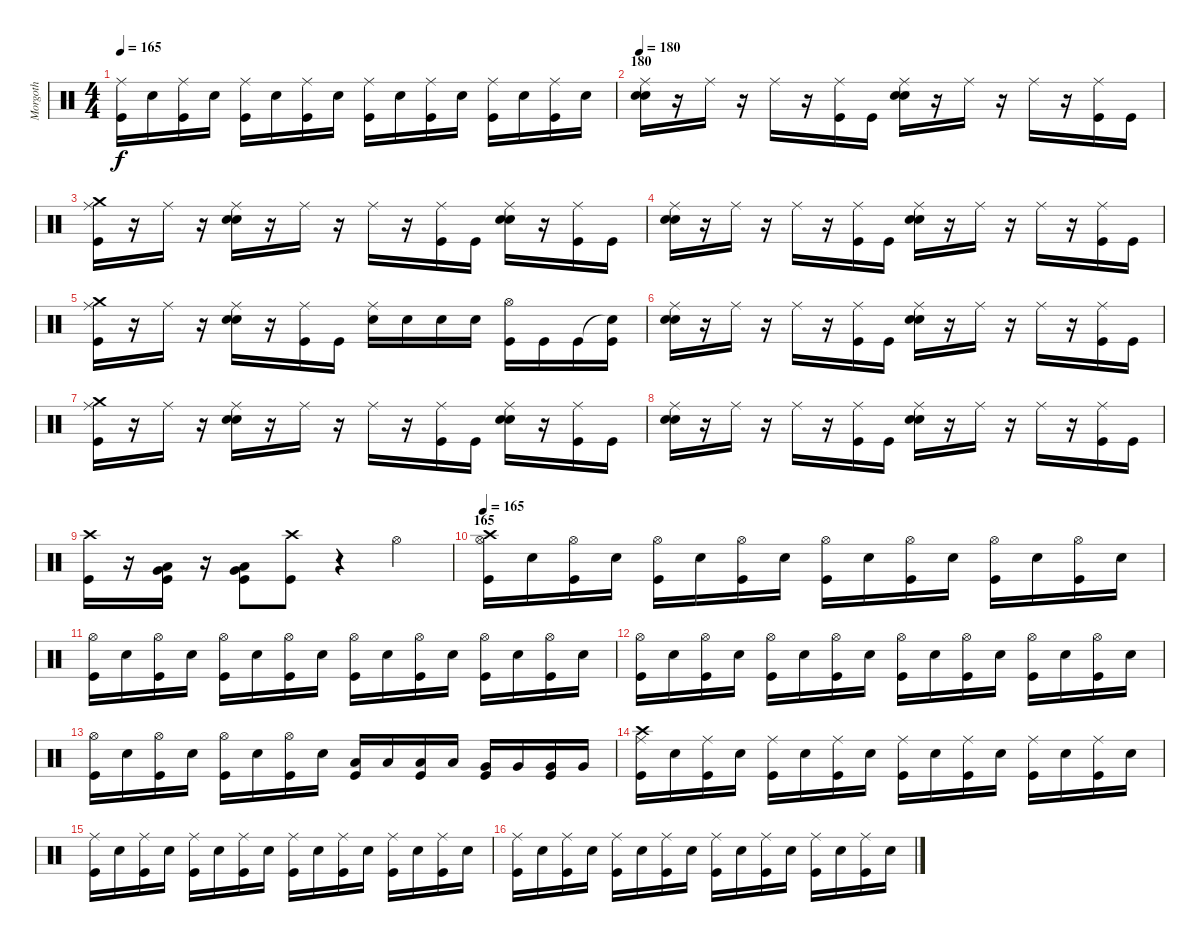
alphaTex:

\track ("Morgoth" "Morgoth") {instrument percussion}
\staff {score}
\articulation defaults
\ts (4 4)
\tempo 165
\clef neutral
\ks c
("Kick (hit)" "Ride (middle)").16{dy f} "Snare (hit) 2".16 ("Kick (hit)" "Ride (middle)").16 "Snare (hit) 2".16 ("Kick (hit)" "Ride (middle)").16 "Snare (hit) 2".16 ("Kick (hit)" "Ride (middle)").16 "Snare (hit) 2".16 ("Kick (hit)" "Ride (middle)").16 "Snare (hit) 2".16 ("Kick (hit)" "Ride (middle)").16 "Snare (hit) 2".16 ("Kick (hit)" "Ride (middle)").16 "Snare (hit) 2".16 ("Kick (hit)" "Ride (middle)").16 "Snare (hit) 2".16 |
\section ("" "180")
\tempo 180
("Ride (middle)" "Snare (hit) 2" "Snare (hit) 2").16 r.16 "Ride (middle)".16 r.16 "Ride (middle)".16 r.16 ("Ride (middle)" "Kick (hit)").16 "Kick (hit)".16 ("Ride (middle)" "Snare (hit) 2" "Snare (hit) 2").16 r.16 "Ride (middle)".16 r.16 "Ride (middle)".16 r.16 ("Ride (middle)" "Kick (hit)").16 "Kick (hit)".16 |
("Crash medium (hit)" "Ride (middle)" "Kick (hit)").16 r.16 "Ride (middle)".16 r.16 ("Ride (middle)" "Snare (hit) 2" "Snare (hit) 2").16 r.16 "Ride (middle)".16 r.16 "Ride (middle)".16 r.16 ("Ride (middle)" "Kick (hit)").16 "Kick (hit)".16 ("Ride (middle)" "Snare (hit) 2" "Snare (hit) 2").16 r.16 ("Ride (middle)" "Kick (hit)").16 "Kick (hit)".16 |
("Ride (middle)" "Snare (hit) 2" "Snare (hit) 2").16 r.16 "Ride (middle)".16 r.16 "Ride (middle)".16 r.16 ("Ride (middle)" "Kick (hit)").16 "Kick (hit)".16 ("Ride (middle)" "Snare (hit) 2" "Snare (hit) 2").16 r.16 "Ride (middle)".16 r.16 "Ride (middle)".16 r.16 ("Ride (middle)" "Kick (hit)").16 "Kick (hit)".16 |
("Crash medium (hit)" "Ride (middle)" "Kick (hit)").16 r.16 "Ride (middle)".16 r.16 ("Ride (middle)" "Snare (hit) 2" "Snare (hit) 2").16 r.16 ("Ride (middle)" "Kick (hit)").16 "Kick (hit)".16 ("Ride (middle)" "Snare (hit) 2").16 "Snare (hit) 2".16 "Snare (hit) 2".16 "Snare (hit) 2".16 ("Hi-Hat (open)" "Kick (hit)").16 "Kick (hit)".16 "Kick (hit)".16 ("Snare (hit)"{t} "Kick (hit)").16 |
("Ride (middle)" "Snare (hit) 2" "Snare (hit) 2").16 r.16 "Ride (middle)".16 r.16 "Ride (middle)".16 r.16 ("Ride (middle)" "Kick (hit)").16 "Kick (hit)".16 ("Ride (middle)" "Snare (hit) 2" "Snare (hit) 2").16 r.16 "Ride (middle)".16 r.16 "Ride (middle)".16 r.16 ("Ride (middle)" "Kick (hit)").16 "Kick (hit)".16 |
("Crash medium (hit)" "Ride (middle)" "Kick (hit)").16 r.16 "Ride (middle)".16 r.16 ("Ride (middle)" "Snare (hit) 2" "Snare (hit) 2").16 r.16 "Ride (middle)".16 r.16 "Ride (middle)".16 r.16 ("Ride (middle)" "Kick (hit)").16 "Kick (hit)".16 ("Ride (middle)" "Snare (hit) 2" "Snare (hit) 2").16 r.16 ("Ride (middle)" "Kick (hit)").16 "Kick (hit)".16 |
("Ride (middle)" "Snare (hit) 2" "Snare (hit) 2").16 r.16 "Ride (middle)".16 r.16 "Ride (middle)".16 r.16 ("Ride (middle)" "Kick (hit)").16 "Kick (hit)".16 ("Ride (middle)" "Snare (hit) 2" "Snare (hit) 2").16 r.16 "Ride (middle)".16 r.16 "Ride (middle)".16 r.16 ("Ride (middle)" "Kick (hit)").16 "Kick (hit)".16 |
("Crash high (hit)" "Kick (hit)").16 r.16 ("Kick (hit)" "Low Tom (hit)" "Very Low Tom (hit)").16 r.16 ("Kick (hit)" "Low Tom (hit)" "Very Low Tom (hit)").8 ("Crash high (hit)" "Kick (hit)").8 r.4 "Hi-Hat (open)".4 |
\section ("" "165")
\tempo 165
("Kick (hit)" "Crash high (hit)" "Hi-Hat (open)").16 "Snare (hit) 2".16 ("Kick (hit)" "Hi-Hat (open)").16 "Snare (hit) 2".16 ("Kick (hit)" "Hi-Hat (open)").16 "Snare (hit) 2".16 ("Kick (hit)" "Hi-Hat (open)").16 "Snare (hit) 2".16 ("Kick (hit)" "Hi-Hat (open)").16 "Snare (hit) 2".16 ("Kick (hit)" "Hi-Hat (open)").16 "Snare (hit) 2".16 ("Kick (hit)" "Hi-Hat (open)").16 "Snare (hit) 2".16 ("Kick (hit)" "Hi-Hat (open)").16 "Snare (hit) 2".16 |
("Kick (hit)" "Hi-Hat (open)").16 "Snare (hit) 2".16 ("Kick (hit)" "Hi-Hat (open)").16 "Snare (hit) 2".16 ("Kick (hit)" "Hi-Hat (open)").16 "Snare (hit) 2".16 ("Kick (hit)" "Hi-Hat (open)").16 "Snare (hit) 2".16 ("Kick (hit)" "Hi-Hat (open)").16 "Snare (hit) 2".16 ("Kick (hit)" "Hi-Hat (open)").16 "Snare (hit) 2".16 ("Kick (hit)" "Hi-Hat (open)").16 "Snare (hit) 2".16 ("Kick (hit)" "Hi-Hat (open)").16 "Snare (hit) 2".16 |
("Kick (hit)" "Hi-Hat (open)").16 "Snare (hit) 2".16 ("Kick (hit)" "Hi-Hat (open)").16 "Snare (hit) 2".16 ("Kick (hit)" "Hi-Hat (open)").16 "Snare (hit) 2".16 ("Kick (hit)" "Hi-Hat (open)").16 "Snare (hit) 2".16 ("Kick (hit)" "Hi-Hat (open)").16 "Snare (hit) 2".16 ("Kick (hit)" "Hi-Hat (open)").16 "Snare (hit) 2".16 ("Kick (hit)" "Hi-Hat (open)").16 "Snare (hit) 2".16 ("Kick (hit)" "Hi-Hat (open)").16 "Snare (hit) 2".16 |
("Kick (hit)" "Hi-Hat (open)").16 "Snare (hit) 2".16 ("Kick (hit)" "Hi-Hat (open)").16 "Snare (hit) 2".16 ("Kick (hit)" "Hi-Hat (open)").16 "Snare (hit) 2".16 ("Kick (hit)" "Hi-Hat (open)").16 "Snare (hit) 2".16 ("Kick (hit)" "Low Tom (hit)").16 "Low Tom (hit)".16 ("Kick (hit)" "Low Tom (hit)").16 "Low Tom (hit)".16 ("Kick (hit)" "Very Low Tom (hit)").16 "Very Low Tom (hit)".16 ("Kick (hit)" "Very Low Tom (hit)").16 "Very Low Tom (hit)".16 |
("Kick (hit)" "Crash high (hit)" "Ride (middle)").16 "Snare (hit) 2".16 ("Kick (hit)" "Ride (middle)").16 "Snare (hit) 2".16 ("Kick (hit)" "Ride (middle)").16 "Snare (hit) 2".16 ("Kick (hit)" "Ride (middle)").16 "Snare (hit) 2".16 ("Kick (hit)" "Ride (middle)").16 "Snare (hit) 2".16 ("Kick (hit)" "Ride (middle)").16 "Snare (hit) 2".16 ("Kick (hit)" "Ride (middle)").16 "Snare (hit) 2".16 ("Kick (hit)" "Ride (middle)").16 "Snare (hit) 2".16 |
("Kick (hit)" "Ride (middle)").16 "Snare (hit) 2".16 ("Kick (hit)" "Ride (middle)").16 "Snare (hit) 2".16 ("Kick (hit)" "Ride (middle)").16 "Snare (hit) 2".16 ("Kick (hit)" "Ride (middle)").16 "Snare (hit) 2".16 ("Kick (hit)" "Ride (middle)").16 "Snare (hit) 2".16 ("Kick (hit)" "Ride (middle)").16 "Snare (hit) 2".16 ("Kick (hit)" "Ride (middle)").16 "Snare (hit) 2".16 ("Kick (hit)" "Ride (middle)").16 "Snare (hit) 2".16 |
("Kick (hit)" "Ride (middle)").16 "Snare (hit) 2".16 ("Kick (hit)" "Ride (middle)").16 "Snare (hit) 2".16 ("Kick (hit)" "Ride (middle)").16 "Snare (hit) 2".16 ("Kick (hit)" "Ride (middle)").16 "Snare (hit) 2".16 ("Kick (hit)" "Ride (middle)").16 "Snare (hit) 2".16 ("Kick (hit)" "Ride (middle)").16 "Snare (hit) 2".16 ("Kick (hit)" "Ride (middle)").16 "Snare (hit) 2".16 ("Kick (hit)" "Ride (middle)").16 "Snare (hit) 2".16
